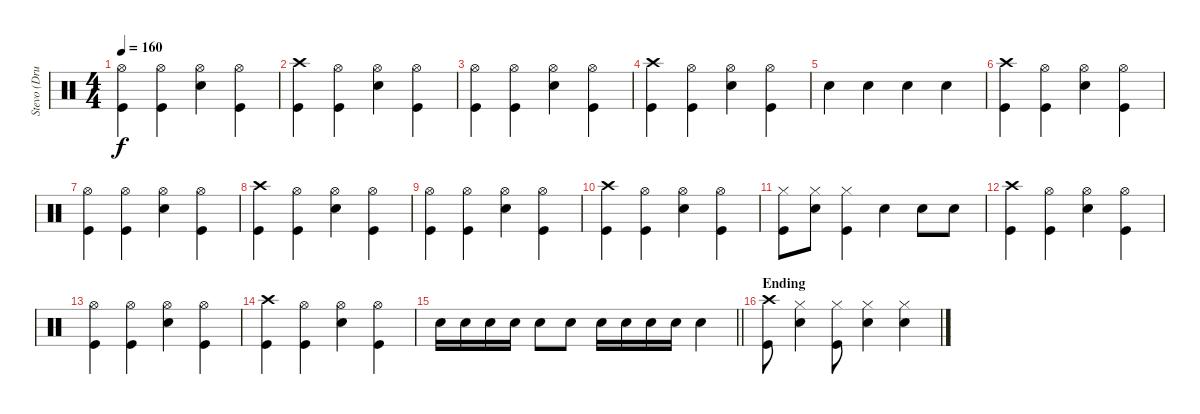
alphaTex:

\track ("Stevo (Drums)" "Stevo (Dru") {instrument percussion}
\staff {score}
\articulation defaults
\ts (4 4)
\tempo 160
\clef neutral
\ks c
("Hi-Hat (open)" "Kick (hit)").4{dy f} ("Hi-Hat (open)" "Kick (hit)").4 ("Hi-Hat (open)" "Electric Snare (hit)").4 ("Hi-Hat (open)" "Kick (hit)").4 |
("Crash high (hit)" "Kick (hit)").4 ("Hi-Hat (open)" "Kick (hit)").4 ("Hi-Hat (open)" "Electric Snare (hit)").4 ("Hi-Hat (open)" "Kick (hit)").4 |
("Hi-Hat (open)" "Kick (hit)").4 ("Hi-Hat (open)" "Kick (hit)").4 ("Hi-Hat (open)" "Electric Snare (hit)").4 ("Hi-Hat (open)" "Kick (hit)").4 |
("Crash high (hit)" "Kick (hit)").4 ("Hi-Hat (open)" "Kick (hit)").4 ("Hi-Hat (open)" "Electric Snare (hit)").4 ("Hi-Hat (open)" "Kick (hit)").4 |
"Electric Snare (hit)".4 "Electric Snare (hit)".4 "Electric Snare (hit)".4 "Electric Snare (hit)".4 |
("Crash high (hit)" "Kick (hit)").4 ("Hi-Hat (open)" "Kick (hit)").4 ("Hi-Hat (open)" "Electric Snare (hit)").4 ("Hi-Hat (open)" "Kick (hit)").4 |
("Hi-Hat (open)" "Kick (hit)").4 ("Hi-Hat (open)" "Kick (hit)").4 ("Hi-Hat (open)" "Electric Snare (hit)").4 ("Hi-Hat (open)" "Kick (hit)").4 |
("Crash high (hit)" "Kick (hit)").4 ("Hi-Hat (open)" "Kick (hit)").4 ("Hi-Hat (open)" "Electric Snare (hit)").4 ("Hi-Hat (open)" "Kick (hit)").4 |
("Hi-Hat (open)" "Kick (hit)").4 ("Hi-Hat (open)" "Kick (hit)").4 ("Hi-Hat (open)" "Electric Snare (hit)").4 ("Hi-Hat (open)" "Kick (hit)").4 |
("Crash high (hit)" "Kick (hit)").4 ("Hi-Hat (open)" "Kick (hit)").4 ("Hi-Hat (open)" "Electric Snare (hit)").4 ("Hi-Hat (open)" "Kick (hit)").4 |
("Hi-Hat (closed)" "Kick (hit)").8 ("Hi-Hat (closed)" "Electric Snare (hit)").8 ("Hi-Hat (closed)" "Kick (hit)").4 "Electric Snare (hit)".4 "Electric Snare (hit)".8 "Electric Snare (hit)".8 |
("Crash high (hit)" "Kick (hit)").4 ("Hi-Hat (open)" "Kick (hit)").4 ("Hi-Hat (open)" "Electric Snare (hit)").4 ("Hi-Hat (open)" "Kick (hit)").4 |
("Hi-Hat (open)" "Kick (hit)").4 ("Hi-Hat (open)" "Kick (hit)").4 ("Hi-Hat (open)" "Electric Snare (hit)").4 ("Hi-Hat (open)" "Kick (hit)").4 |
("Crash high (hit)" "Kick (hit)").4 ("Hi-Hat (open)" "Kick (hit)").4 ("Hi-Hat (open)" "Electric Snare (hit)").4 ("Hi-Hat (open)" "Kick (hit)").4 |
\barLineRight lightlight "Electric Snare (hit)".16 "Electric Snare (hit)".16 "Electric Snare (hit)".16 "Electric Snare (hit)".16 "Electric Snare (hit)".8 "Electric Snare (hit)".8 "Electric Snare (hit)".16 "Electric Snare (hit)".16 "Electric Snare (hit)".16 "Electric Snare (hit)".16 "Electric Snare (hit)".4
|
\section ("" "Ending")
("Crash high (hit)" "Kick (hit)").8 ("Hi-Hat (closed)" "Electric Snare (hit)").4 ("Hi-Hat (closed)" "Kick (hit)").8 ("Hi-Hat (closed)" "Electric Snare (hit)").4 ("Hi-Hat (closed)" "Electric Snare (hit)").4
